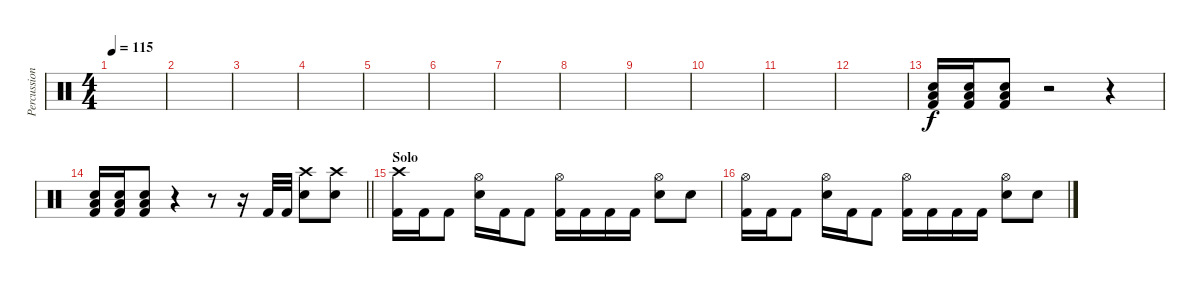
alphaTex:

\track ("Percussion" "Percussion") {instrument percussion}
\staff {score}
\articulation defaults
\ts (4 4)
\tempo 115
\clef neutral
\ks c
|
|
|
|
|
|
|
|
|
|
|
|
("Electric Snare (hit)" "Low Tom (hit)" "Kick (hit) 2").16{dy f} ("Electric Snare (hit)" "Low Tom (hit)" "Kick (hit) 2").16 ("Electric Snare (hit)" "Low Tom (hit)" "Kick (hit) 2").8 r.2 r.4 |
\barLineRight lightlight
("Electric Snare (hit)" "Low Tom (hit)" "Kick (hit) 2").16 ("Electric Snare (hit)" "Low Tom (hit)" "Kick (hit) 2").16 ("Electric Snare (hit)" "Low Tom (hit)" "Kick (hit) 2").8 r.4 r.8 r.16 "Kick (hit) 2".32 "Kick (hit) 2".32 ("Electric Snare (hit)" "Crash high (hit)").8 ("Electric Snare (hit)" "Crash high (hit)").8 |
\section ("" "Solo")
("Kick (hit) 2" "Crash high (hit)").16 "Kick (hit) 2".16 "Kick (hit) 2".8 ("Electric Snare (hit)" "Hi-Hat (open)").16 "Kick (hit) 2".16 "Kick (hit) 2".8 ("Kick (hit) 2" "Hi-Hat (open)").16 "Kick (hit) 2".16 "Kick (hit) 2".16 "Kick (hit) 2".16 ("Electric Snare (hit)" "Hi-Hat (open)").8 "Electric Snare (hit)".8 |
("Kick (hit) 2" "Hi-Hat (open)").16 "Kick (hit) 2".16 "Kick (hit) 2".8 ("Electric Snare (hit)" "Hi-Hat (open)").16 "Kick (hit) 2".16 "Kick (hit) 2".8 ("Kick (hit) 2" "Hi-Hat (open)").16 "Kick (hit) 2".16 "Kick (hit) 2".16 "Kick (hit) 2".16 ("Electric Snare (hit)" "Hi-Hat (open)").8 "Electric Snare (hit)".8
